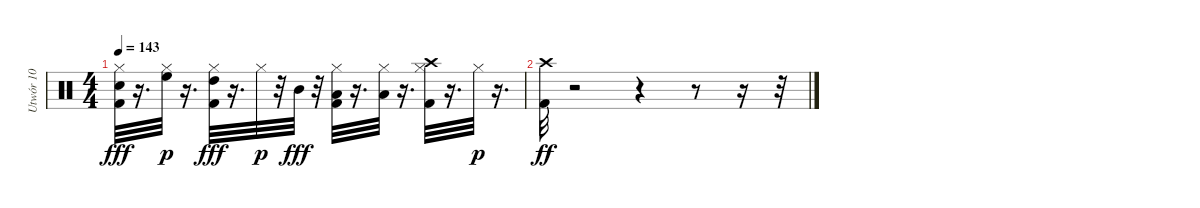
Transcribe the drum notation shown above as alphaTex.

\track ("Utwór 10" "Utwór 10") {instrument percussion}
\staff {score}
\articulation defaults
\ts (4 4)
\tempo 143
\clef neutral
\ks c
("Electric Snare (hit)" "Hi-Hat (closed)" "Kick (hit) 2").32{dy fff} r.16{d} ("High Floor Tom (hit)" "Hi-Hat (closed)").32{dy p} r.16{d} ("Hi-Hat (closed)" "High Tom (hit)" "Kick (hit) 2").32{dy fff} r.16{d} "Hi-Hat (closed)".32{dy p} r.32 "Mid Tom (hit)".32{dy fff} r.32 ("Kick (hit) 2" "Hi-Hat (closed)" "Low Tom (hit)").32 r.16{d} ("Hi-Hat (closed)" "Low Tom (hit)").32 r.16{d} ("Hi-Hat (closed)" "Crash high (hit)" "Kick (hit) 2").32 r.16{d} "Hi-Hat (closed)".32{dy p} r.16{d} |
("Kick (hit) 2" "Crash high (hit)").32{dy ff} r.2 r.4 r.8 r.16 r.32
